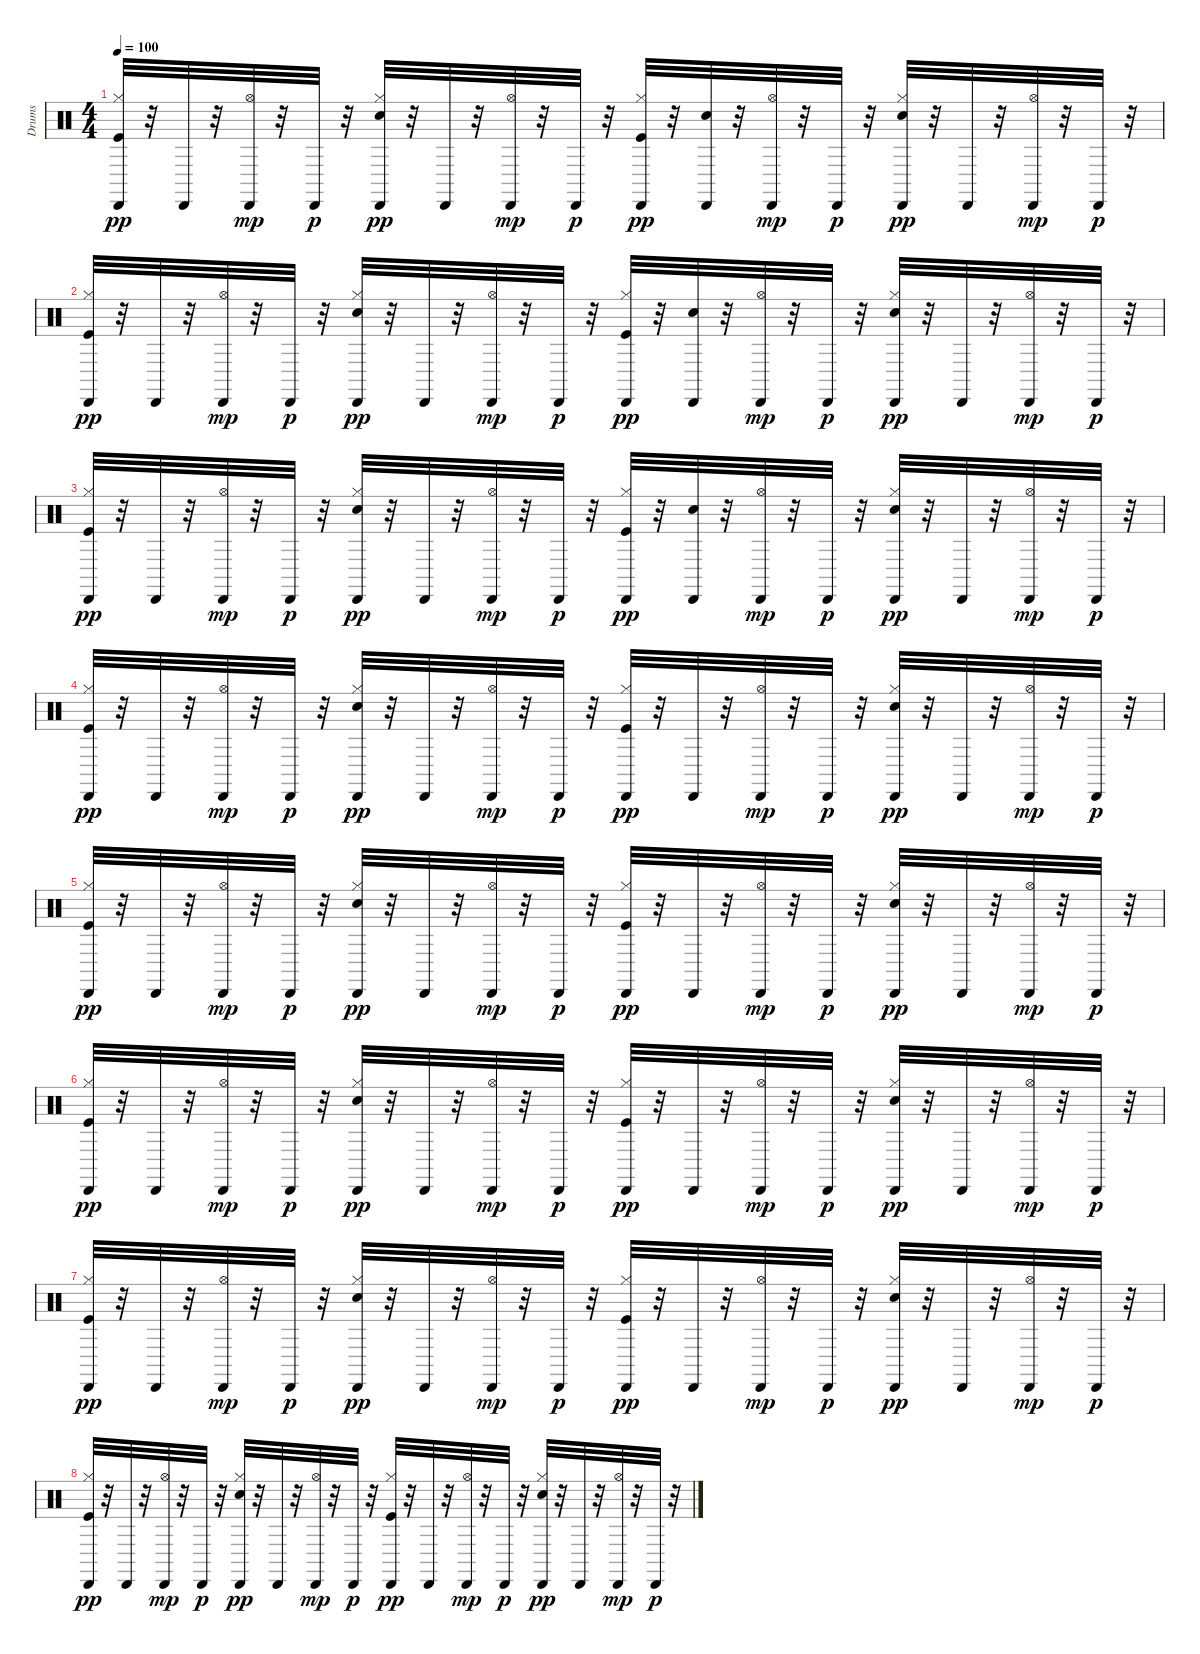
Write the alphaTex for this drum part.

\track ("Drums" "Drums") {instrument percussion}
\staff {score}
\articulation defaults
\ts (4 4)
\tempo 100
\clef neutral
\ks c
("Kick (hit)" "Hi-Hat (closed)" "Cabasa (hit)").32{dy pp} r.32 "Cabasa (hit)".32 r.32 ("Hi-Hat (open)" "Cabasa (hit)").32{dy mp} r.32 "Cabasa (hit)".32{dy p} r.32 ("Electric Snare (hit)" "Hi-Hat (closed)" "Cabasa (hit)").32{dy pp} r.32 "Cabasa (hit)".32 r.32 ("Hi-Hat (open)" "Cabasa (hit)").32{dy mp} r.32 "Cabasa (hit)".32{dy p} r.32 ("Kick (hit)" "Hi-Hat (closed)" "Cabasa (hit)").32{dy pp} r.32 ("Electric Snare (hit)" "Cabasa (hit)").32 r.32 ("Hi-Hat (open)" "Cabasa (hit)").32{dy mp} r.32 "Cabasa (hit)".32{dy p} r.32 ("Electric Snare (hit)" "Hi-Hat (closed)" "Cabasa (hit)").32{dy pp} r.32 "Cabasa (hit)".32 r.32 ("Hi-Hat (open)" "Cabasa (hit)").32{dy mp} r.32 "Cabasa (hit)".32{dy p} r.32 |
("Kick (hit)" "Hi-Hat (closed)" "Cabasa (hit)").32{dy pp} r.32 "Cabasa (hit)".32 r.32 ("Hi-Hat (open)" "Cabasa (hit)").32{dy mp} r.32 "Cabasa (hit)".32{dy p} r.32 ("Electric Snare (hit)" "Hi-Hat (closed)" "Cabasa (hit)").32{dy pp} r.32 "Cabasa (hit)".32 r.32 ("Hi-Hat (open)" "Cabasa (hit)").32{dy mp} r.32 "Cabasa (hit)".32{dy p} r.32 ("Kick (hit)" "Hi-Hat (closed)" "Cabasa (hit)").32{dy pp} r.32 ("Electric Snare (hit)" "Cabasa (hit)").32 r.32 ("Hi-Hat (open)" "Cabasa (hit)").32{dy mp} r.32 "Cabasa (hit)".32{dy p} r.32 ("Electric Snare (hit)" "Hi-Hat (closed)" "Cabasa (hit)").32{dy pp} r.32 "Cabasa (hit)".32 r.32 ("Hi-Hat (open)" "Cabasa (hit)").32{dy mp} r.32 "Cabasa (hit)".32{dy p} r.32 |
("Kick (hit)" "Hi-Hat (closed)" "Cabasa (hit)").32{dy pp} r.32 "Cabasa (hit)".32 r.32 ("Hi-Hat (open)" "Cabasa (hit)").32{dy mp} r.32 "Cabasa (hit)".32{dy p} r.32 ("Electric Snare (hit)" "Hi-Hat (closed)" "Cabasa (hit)").32{dy pp} r.32 "Cabasa (hit)".32 r.32 ("Hi-Hat (open)" "Cabasa (hit)").32{dy mp} r.32 "Cabasa (hit)".32{dy p} r.32 ("Kick (hit)" "Hi-Hat (closed)" "Cabasa (hit)").32{dy pp} r.32 ("Electric Snare (hit)" "Cabasa (hit)").32 r.32 ("Hi-Hat (open)" "Cabasa (hit)").32{dy mp} r.32 "Cabasa (hit)".32{dy p} r.32 ("Electric Snare (hit)" "Hi-Hat (closed)" "Cabasa (hit)").32{dy pp} r.32 "Cabasa (hit)".32 r.32 ("Hi-Hat (open)" "Cabasa (hit)").32{dy mp} r.32 "Cabasa (hit)".32{dy p} r.32 |
("Kick (hit)" "Hi-Hat (closed)" "Cabasa (hit)").32{dy pp} r.32 "Cabasa (hit)".32 r.32 ("Hi-Hat (open)" "Cabasa (hit)").32{dy mp} r.32 "Cabasa (hit)".32{dy p} r.32 ("Electric Snare (hit)" "Hi-Hat (closed)" "Cabasa (hit)").32{dy pp} r.32 "Cabasa (hit)".32 r.32 ("Hi-Hat (open)" "Cabasa (hit)").32{dy mp} r.32 "Cabasa (hit)".32{dy p} r.32 ("Kick (hit)" "Hi-Hat (closed)" "Cabasa (hit)").32{dy pp} r.32 "Cabasa (hit)".32 r.32 ("Hi-Hat (open)" "Cabasa (hit)").32{dy mp} r.32 "Cabasa (hit)".32{dy p} r.32 ("Electric Snare (hit)" "Hi-Hat (closed)" "Cabasa (hit)").32{dy pp} r.32 "Cabasa (hit)".32 r.32 ("Hi-Hat (open)" "Cabasa (hit)").32{dy mp} r.32 "Cabasa (hit)".32{dy p} r.32 |
("Kick (hit)" "Hi-Hat (closed)" "Cabasa (hit)").32{dy pp} r.32 "Cabasa (hit)".32 r.32 ("Hi-Hat (open)" "Cabasa (hit)").32{dy mp} r.32 "Cabasa (hit)".32{dy p} r.32 ("Electric Snare (hit)" "Hi-Hat (closed)" "Cabasa (hit)").32{dy pp} r.32 "Cabasa (hit)".32 r.32 ("Hi-Hat (open)" "Cabasa (hit)").32{dy mp} r.32 "Cabasa (hit)".32{dy p} r.32 ("Kick (hit)" "Hi-Hat (closed)" "Cabasa (hit)").32{dy pp} r.32 "Cabasa (hit)".32 r.32 ("Hi-Hat (open)" "Cabasa (hit)").32{dy mp} r.32 "Cabasa (hit)".32{dy p} r.32 ("Electric Snare (hit)" "Hi-Hat (closed)" "Cabasa (hit)").32{dy pp} r.32 "Cabasa (hit)".32 r.32 ("Hi-Hat (open)" "Cabasa (hit)").32{dy mp} r.32 "Cabasa (hit)".32{dy p} r.32 |
("Kick (hit)" "Hi-Hat (closed)" "Cabasa (hit)").32{dy pp} r.32 "Cabasa (hit)".32 r.32 ("Hi-Hat (open)" "Cabasa (hit)").32{dy mp} r.32 "Cabasa (hit)".32{dy p} r.32 ("Electric Snare (hit)" "Hi-Hat (closed)" "Cabasa (hit)").32{dy pp} r.32 "Cabasa (hit)".32 r.32 ("Hi-Hat (open)" "Cabasa (hit)").32{dy mp} r.32 "Cabasa (hit)".32{dy p} r.32 ("Kick (hit)" "Hi-Hat (closed)" "Cabasa (hit)").32{dy pp} r.32 "Cabasa (hit)".32 r.32 ("Hi-Hat (open)" "Cabasa (hit)").32{dy mp} r.32 "Cabasa (hit)".32{dy p} r.32 ("Electric Snare (hit)" "Hi-Hat (closed)" "Cabasa (hit)").32{dy pp} r.32 "Cabasa (hit)".32 r.32 ("Hi-Hat (open)" "Cabasa (hit)").32{dy mp} r.32 "Cabasa (hit)".32{dy p} r.32 |
("Kick (hit)" "Hi-Hat (closed)" "Cabasa (hit)").32{dy pp} r.32 "Cabasa (hit)".32 r.32 ("Hi-Hat (open)" "Cabasa (hit)").32{dy mp} r.32 "Cabasa (hit)".32{dy p} r.32 ("Electric Snare (hit)" "Hi-Hat (closed)" "Cabasa (hit)").32{dy pp} r.32 "Cabasa (hit)".32 r.32 ("Hi-Hat (open)" "Cabasa (hit)").32{dy mp} r.32 "Cabasa (hit)".32{dy p} r.32 ("Kick (hit)" "Hi-Hat (closed)" "Cabasa (hit)").32{dy pp} r.32 "Cabasa (hit)".32 r.32 ("Hi-Hat (open)" "Cabasa (hit)").32{dy mp} r.32 "Cabasa (hit)".32{dy p} r.32 ("Electric Snare (hit)" "Hi-Hat (closed)" "Cabasa (hit)").32{dy pp} r.32 "Cabasa (hit)".32 r.32 ("Hi-Hat (open)" "Cabasa (hit)").32{dy mp} r.32 "Cabasa (hit)".32{dy p} r.32 |
("Kick (hit)" "Hi-Hat (closed)" "Cabasa (hit)").32{dy pp} r.32 "Cabasa (hit)".32 r.32 ("Hi-Hat (open)" "Cabasa (hit)").32{dy mp} r.32 "Cabasa (hit)".32{dy p} r.32 ("Electric Snare (hit)" "Hi-Hat (closed)" "Cabasa (hit)").32{dy pp} r.32 "Cabasa (hit)".32 r.32 ("Hi-Hat (open)" "Cabasa (hit)").32{dy mp} r.32 "Cabasa (hit)".32{dy p} r.32 ("Kick (hit)" "Hi-Hat (closed)" "Cabasa (hit)").32{dy pp} r.32 "Cabasa (hit)".32 r.32 ("Hi-Hat (open)" "Cabasa (hit)").32{dy mp} r.32 "Cabasa (hit)".32{dy p} r.32 ("Electric Snare (hit)" "Hi-Hat (closed)" "Cabasa (hit)").32{dy pp} r.32 "Cabasa (hit)".32 r.32 ("Hi-Hat (open)" "Cabasa (hit)").32{dy mp} r.32 "Cabasa (hit)".32{dy p} r.32
